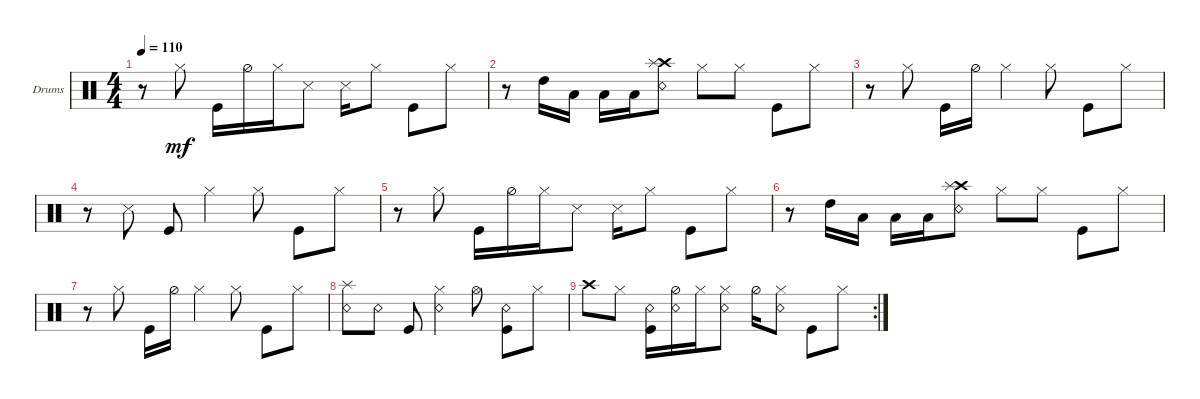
\defaultSystemsLayout 4
\bracketExtendMode groupsimilarinstruments
\firstSystemTrackNameOrientation horizontal
\otherSystemsTrackNameOrientation horizontal
\track ("Drumkit" "Drums") {instrument percussion}
\staff {score}
\articulation defaults
\ts (4 4)
\tempo 110
\clef neutral
\ks c
r.8{dy mf} "Hi-Hat (closed)".8 "Kick (hit)".16 "Hi-Hat (half)".16 "Hi-Hat (closed)".16 "Snare (side stick) 3".8 "Snare (side stick) 3".16 "Hi-Hat (closed)".8 "Kick (hit)".8 "Hi-Hat (closed)".8 |
r.8 "High Tom (hit)".16 "Low Tom (hit)".16 "Low Tom (hit)".16 "Low Tom (hit)".16 ("Snare (rim shot)" "Crash high (hit)" "Splash (hit)").8 "Hi-Hat (closed)".8 "Hi-Hat (closed)".8 "Kick (hit)".8 "Hi-Hat (closed)".8 |
r.8 "Hi-Hat (closed)".8 "Kick (hit)".16 "Hi-Hat (half)".16 "Hi-Hat (closed)".4 "Hi-Hat (closed)".8 "Kick (hit)".8 "Hi-Hat (closed)".8 |
r.8 "Snare (side stick) 3".8 "Kick (hit)".8 "Hi-Hat (closed)".4 "Hi-Hat (closed)".8 "Kick (hit)".8 "Hi-Hat (closed)".8 |
r.8 "Hi-Hat (closed)".8 "Kick (hit)".16 "Hi-Hat (half)".16 "Hi-Hat (closed)".16 "Snare (side stick) 3".8 "Snare (side stick) 3".16 "Hi-Hat (closed)".8 "Kick (hit)".8 "Hi-Hat (closed)".8 |
r.8 "High Tom (hit)".16 "Low Tom (hit)".16 "Low Tom (hit)".16 "Low Tom (hit)".16 ("Snare (rim shot)" "Crash high (hit)" "Splash (hit)").8 "Hi-Hat (closed)".8 "Hi-Hat (closed)".8 "Kick (hit)".8 "Hi-Hat (closed)".8 |
r.8 "Hi-Hat (closed)".8 "Kick (hit)".16 "Hi-Hat (half)".16 "Hi-Hat (closed)".4 "Hi-Hat (closed)".8 "Kick (hit)".8 "Hi-Hat (closed)".8 |
("Splash (hit)" "Snare (rim shot)").8 "Snare (rim shot)".8 "Kick (hit)".8 ("Hi-Hat (closed)" "Snare (rim shot)").4 "Hi-Hat (open)".8 ("Kick (hit)" "Snare (rim shot)").8 "Hi-Hat (closed)".8 |
\rc 2 "Crash high (hit)".8 "Hi-Hat (closed)".8
("Kick (hit)" "Snare (rim shot)").16 ("Hi-Hat (half)" "Snare (rim shot)").16 "Hi-Hat (closed)".16 ("Snare (rim shot)" "Hi-Hat (closed)").8 "Hi-Hat (half)".16 ("Hi-Hat (closed)" "Snare (rim shot)").8 "Kick (hit)".8 "Hi-Hat (closed)".8
